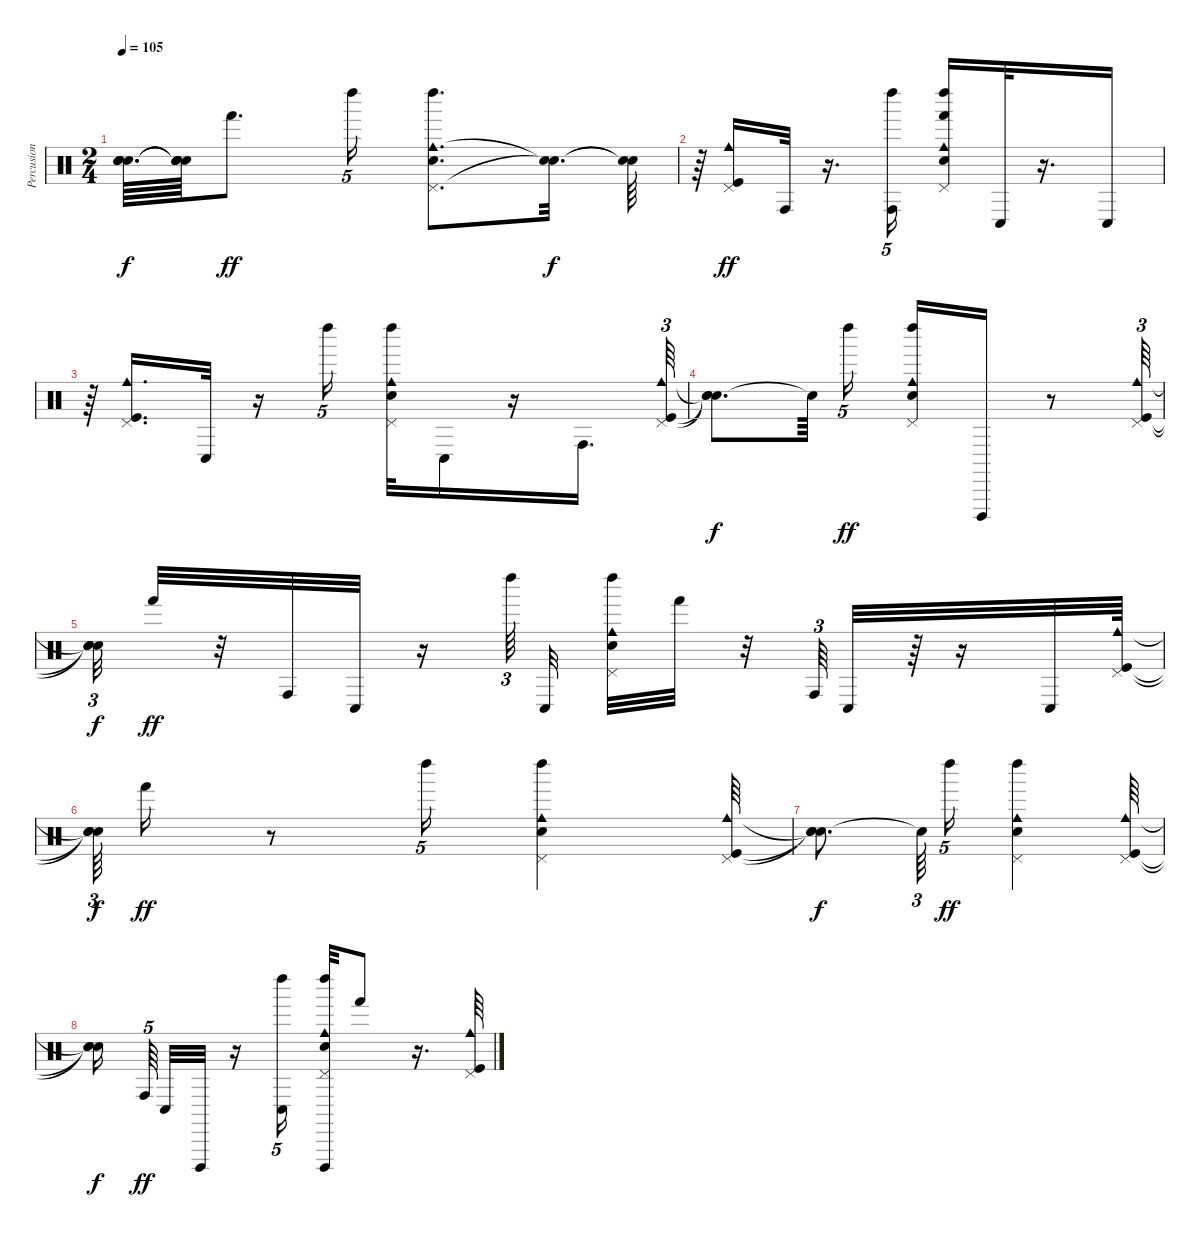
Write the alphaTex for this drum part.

\track ("Percusion" "Percusion") {instrument percussion}
\staff {score}
\articulation defaults
\ts (2 4)
\tempo 105
\clef neutral
\ks c
("Snare (hit)"{t} "Snare (hit)"{t} "Snare (hit)"{t} "Snare (hit)"{t}).64{d dy f} ("Snare (hit)"{t} "Snare (hit)"{t} "Snare (hit)"{t} "Snare (hit)"{t}).64 "Hand (hit)".8{d dy ff} "Left Maraca (hit)".16{tu (5 4)} ("Pedal Hi-Hat (hit)" "Cowbell medium (hit)" "Electric Snare (hit)" "Left Maraca (hit)").8{d} ("Snare (hit)"{t} "Snare (hit)"{t}).32{d dy f} ("Snare (hit)"{t} "Snare (hit)"{t}).64 |
r.64 ("Pedal Hi-Hat (hit)" "Cowbell medium (hit)" "Kick (hit)").16{dy ff} "Conga high (hit)".32 r.16{d} ("Conga high (hit)" "Left Maraca (hit)").16{tu (5 4)} ("Pedal Hi-Hat (hit)" "Electric Snare (hit)" "Cowbell medium (hit)" "Left Maraca (hit)" "Hand (hit)").16 "Conga low (hit)".32 r.16{d} "Conga low (hit)".16 |
r.64 ("Pedal Hi-Hat (hit)" "Kick (hit)" "Cowbell medium (hit)").16{d} "Conga low (hit)".32 r.16 "Left Maraca (hit)".16{tu (5 4)} ("Pedal Hi-Hat (hit)" "Cowbell medium (hit)" "Electric Snare (hit)" "Left Maraca (hit)").32 "Conga low (hit)".16 r.16 "Conga high (hit)".16{d} ("Pedal Hi-Hat (hit)" "Kick (hit)" "Cowbell medium (hit)").64{tu (3 2)} |
("Snare (hit)"{t} "Snare (hit)"{t} "Snare (hit)"{t}).8{d dy f} "Snare (hit)"{t}.64{beam splitsecondary} "Left Maraca (hit)".16{tu (5 4) dy ff} ("Pedal Hi-Hat (hit)" "Electric Snare (hit)" "Cowbell medium (hit)" "Left Maraca (hit)").16 "Cuica (open)".16 r.8 ("Pedal Hi-Hat (hit)" "Cowbell medium (hit)" "Kick (hit)").64{tu (3 2)} |
("Snare (hit)"{t} "Snare (hit)"{t} "Snare (hit)"{t}).32{tu (3 2) dy f} "Hand (hit)".32{dy ff} r.32 "Conga high (hit)".32 "Conga low (hit)".32 r.16 "Left Maraca (hit)".64{tu (3 2)} "Conga low (hit)".32 ("Pedal Hi-Hat (hit)" "Electric Snare (hit)" "Cowbell medium (hit)" "Left Maraca (hit)").32 "Hand (hit)".32 r.32 "Conga high (hit)".64{tu (3 2)} "Conga low (hit)".32 r.64 r.16 "Conga low (hit)".32 ("Pedal Hi-Hat (hit)" "Cowbell medium (hit)" "Kick (hit)").64 |
("Snare (hit)"{t} "Snare (hit)"{t} "Snare (hit)"{t}).64{tu (3 2) dy f} "Hand (hit)".16{dy ff} r.8 "Left Maraca (hit)".16{tu (5 4)} ("Pedal Hi-Hat (hit)" "Electric Snare (hit)" "Cowbell medium (hit)" "Left Maraca (hit)").4 ("Pedal Hi-Hat (hit)" "Cowbell medium (hit)" "Kick (hit)").64 |
("Snare (hit)"{t} "Snare (hit)"{t} "Snare (hit)"{t}).8{d dy f} "Snare (hit)"{t}.64{tu (3 2)} "Left Maraca (hit)".16{tu (5 4) dy ff} ("Pedal Hi-Hat (hit)" "Electric Snare (hit)" "Cowbell medium (hit)" "Left Maraca (hit)").4 ("Pedal Hi-Hat (hit)" "Cowbell medium (hit)" "Kick (hit)").64 |
("Snare (hit)"{t} "Snare (hit)"{t} "Snare (hit)"{t}).16{dy f beam splitsecondary} "Conga high (hit)".64{tu (5 4) dy ff beam splitsecondary} "Conga low (hit)".32 "Cuica (open)".32 r.16 ("Conga low (hit)" "Left Maraca (hit)").16{tu (5 4)} ("Pedal Hi-Hat (hit)" "Electric Snare (hit)" "Cowbell medium (hit)" "Left Maraca (hit)" "Cuica (open)").32 "Hand (hit)".8 r.16{d} ("Pedal Hi-Hat (hit)" "Kick (hit)" "Cowbell medium (hit)").64
